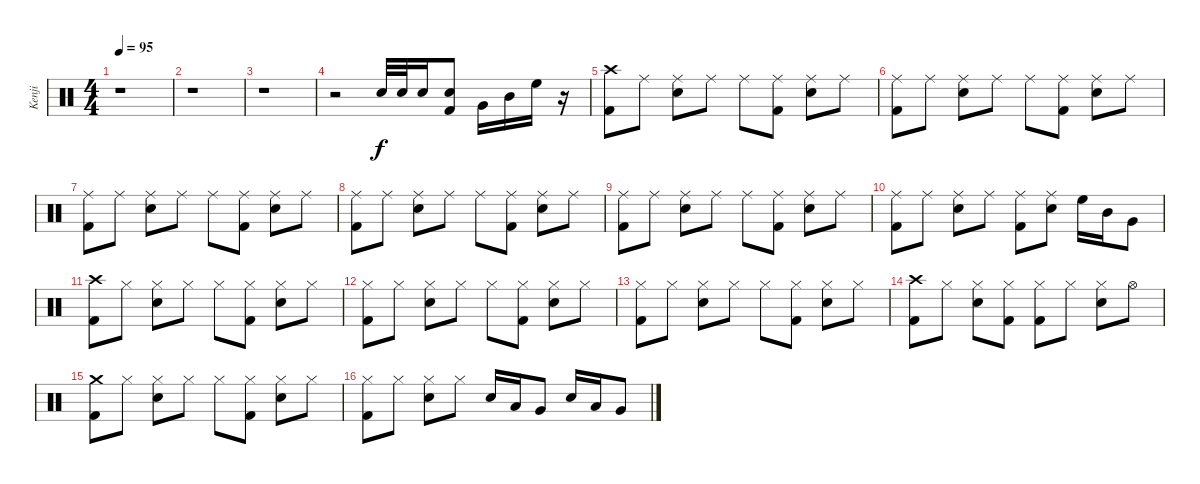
\track ("Kenji" "Kenji") {instrument percussion}
\staff {score}
\articulation defaults
\ts (4 4)
\tempo 95
\clef neutral
\ks c
r.1{dy f} |
r.1 |
r.1 |
r.2 "Electric Snare (hit)".32 "Electric Snare (hit)".32 "Electric Snare (hit)".16 ("Electric Snare (hit)" "Kick (hit) 2").8 "Very Low Tom (hit)".16 "Mid Tom (hit)".16 "High Floor Tom (hit)".16 r.16 |
("Crash high (hit)" "Kick (hit) 2").8 "Ride (middle)".8 ("Ride (middle)" "Electric Snare (hit)").8 "Ride (middle)".8 "Ride (middle)".8 ("Ride (middle)" "Kick (hit) 2").8 ("Ride (middle)" "Electric Snare (hit)").8 "Ride (middle)".8 |
("Ride (middle)" "Kick (hit) 2").8 "Ride (middle)".8 ("Ride (middle)" "Electric Snare (hit)").8 "Ride (middle)".8 "Ride (middle)".8 ("Ride (middle)" "Kick (hit) 2").8 ("Ride (middle)" "Electric Snare (hit)").8 "Ride (middle)".8 |
("Ride (middle)" "Kick (hit) 2").8 "Ride (middle)".8 ("Ride (middle)" "Electric Snare (hit)").8 "Ride (middle)".8 "Ride (middle)".8 ("Ride (middle)" "Kick (hit) 2").8 ("Ride (middle)" "Electric Snare (hit)").8 "Ride (middle)".8 |
("Ride (middle)" "Kick (hit) 2").8 "Ride (middle)".8 ("Ride (middle)" "Electric Snare (hit)").8 "Ride (middle)".8 "Ride (middle)".8 ("Ride (middle)" "Kick (hit) 2").8 ("Ride (middle)" "Electric Snare (hit)").8 "Ride (middle)".8 |
("Ride (middle)" "Kick (hit) 2").8 "Ride (middle)".8 ("Ride (middle)" "Electric Snare (hit)").8 "Ride (middle)".8 "Ride (middle)".8 ("Ride (middle)" "Kick (hit) 2").8 ("Ride (middle)" "Electric Snare (hit)").8 "Ride (middle)".8 |
("Ride (middle)" "Kick (hit) 2").8 "Ride (middle)".8 ("Ride (middle)" "Electric Snare (hit)").8 "Ride (middle)".8 ("Ride (middle)" "Kick (hit) 2").8 ("Ride (middle)" "Electric Snare (hit)").8 "High Floor Tom (hit)".16 "Mid Tom (hit)".16 "Very Low Tom (hit)".8 |
("Crash high (hit)" "Kick (hit) 2").8 "Hi-Hat (closed)".8 ("Hi-Hat (closed)" "Electric Snare (hit)").8 "Hi-Hat (closed)".8 "Hi-Hat (closed)".8 ("Hi-Hat (closed)" "Kick (hit) 2").8 ("Hi-Hat (closed)" "Electric Snare (hit)").8 "Hi-Hat (closed)".8 |
("Hi-Hat (closed)" "Kick (hit) 2").8 "Hi-Hat (closed)".8 ("Hi-Hat (closed)" "Electric Snare (hit)").8 "Hi-Hat (closed)".8 "Hi-Hat (closed)".8 ("Hi-Hat (closed)" "Kick (hit) 2").8 ("Hi-Hat (closed)" "Electric Snare (hit)").8 "Hi-Hat (closed)".8 |
("Hi-Hat (closed)" "Kick (hit) 2").8 "Hi-Hat (closed)".8 ("Hi-Hat (closed)" "Electric Snare (hit)").8 "Hi-Hat (closed)".8 "Hi-Hat (closed)".8 ("Hi-Hat (closed)" "Kick (hit) 2").8 ("Hi-Hat (closed)" "Electric Snare (hit)").8 "Hi-Hat (closed)".8 |
("Crash high (hit)" "Kick (hit) 2").8 "Hi-Hat (closed)".8 ("Hi-Hat (closed)" "Electric Snare (hit)").8 ("Hi-Hat (closed)" "Kick (hit) 2").8 ("Hi-Hat (closed)" "Kick (hit) 2").8 "Hi-Hat (closed)".8 ("Hi-Hat (closed)" "Electric Snare (hit)").8 "Hi-Hat (open)".8 |
("Crash medium (hit)" "Kick (hit) 2").8 "Hi-Hat (closed)".8 ("Hi-Hat (closed)" "Electric Snare (hit)").8 "Hi-Hat (closed)".8 "Hi-Hat (closed)".8 ("Hi-Hat (closed)" "Kick (hit) 2").8 ("Hi-Hat (closed)" "Electric Snare (hit)").8 "Hi-Hat (closed)".8 |
("Hi-Hat (closed)" "Kick (hit) 2").8 "Hi-Hat (closed)".8 ("Hi-Hat (closed)" "Electric Snare (hit)").8 "Hi-Hat (closed)".8 "Electric Snare (hit)".16 "Low Tom (hit)".16 "Very Low Tom (hit)".8 "Electric Snare (hit)".16 "Low Tom (hit)".16 "Very Low Tom (hit)".8
